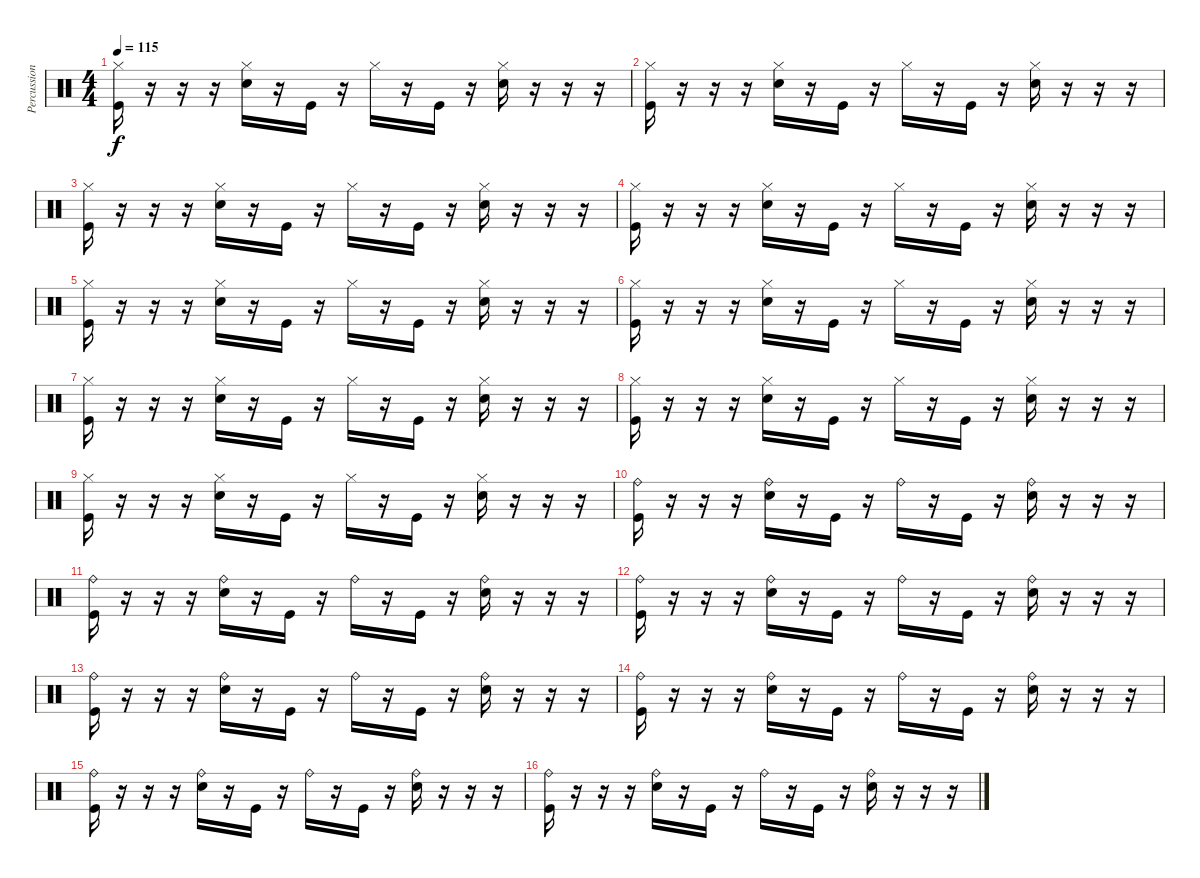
\track ("Percussion" "Percussion") {instrument percussion}
\staff {score}
\articulation defaults
\ts (4 4)
\tempo 115
\clef neutral
\ks c
("Hi-Hat (closed)" "Kick (hit)").16{dy f} r.16 r.16 r.16 ("Hi-Hat (closed)" "Snare (hit) 2").16 r.16 "Kick (hit)".16 r.16 "Hi-Hat (closed)".16 r.16 "Kick (hit)".16 r.16 ("Hi-Hat (closed)" "Snare (hit) 2").16 r.16 r.16 r.16 |
("Hi-Hat (closed)" "Kick (hit)").16 r.16 r.16 r.16 ("Hi-Hat (closed)" "Snare (hit) 2").16 r.16 "Kick (hit)".16 r.16 "Hi-Hat (closed)".16 r.16 "Kick (hit)".16 r.16 ("Hi-Hat (closed)" "Snare (hit) 2").16 r.16 r.16 r.16 |
("Hi-Hat (closed)" "Kick (hit)").16 r.16 r.16 r.16 ("Hi-Hat (closed)" "Snare (hit) 2").16 r.16 "Kick (hit)".16 r.16 "Hi-Hat (closed)".16 r.16 "Kick (hit)".16 r.16 ("Hi-Hat (closed)" "Snare (hit) 2").16 r.16 r.16 r.16 |
("Hi-Hat (closed)" "Kick (hit)").16 r.16 r.16 r.16 ("Hi-Hat (closed)" "Snare (hit) 2").16 r.16 "Kick (hit)".16 r.16 "Hi-Hat (closed)".16 r.16 "Kick (hit)".16 r.16 ("Hi-Hat (closed)" "Snare (hit) 2").16 r.16 r.16 r.16 |
("Hi-Hat (closed)" "Kick (hit)").16 r.16 r.16 r.16 ("Hi-Hat (closed)" "Snare (hit) 2").16 r.16 "Kick (hit)".16 r.16 "Hi-Hat (closed)".16 r.16 "Kick (hit)".16 r.16 ("Hi-Hat (closed)" "Snare (hit) 2").16 r.16 r.16 r.16 |
("Hi-Hat (closed)" "Kick (hit)").16 r.16 r.16 r.16 ("Hi-Hat (closed)" "Snare (hit) 2").16 r.16 "Kick (hit)".16 r.16 "Hi-Hat (closed)".16 r.16 "Kick (hit)".16 r.16 ("Hi-Hat (closed)" "Snare (hit) 2").16 r.16 r.16 r.16 |
("Hi-Hat (closed)" "Kick (hit)").16 r.16 r.16 r.16 ("Hi-Hat (closed)" "Snare (hit) 2").16 r.16 "Kick (hit)".16 r.16 "Hi-Hat (closed)".16 r.16 "Kick (hit)".16 r.16 ("Hi-Hat (closed)" "Snare (hit) 2").16 r.16 r.16 r.16 |
("Hi-Hat (closed)" "Kick (hit)").16 r.16 r.16 r.16 ("Hi-Hat (closed)" "Snare (hit) 2").16 r.16 "Kick (hit)".16 r.16 "Hi-Hat (closed)".16 r.16 "Kick (hit)".16 r.16 ("Hi-Hat (closed)" "Snare (hit) 2").16 r.16 r.16 r.16 |
("Hi-Hat (closed)" "Kick (hit)").16 r.16 r.16 r.16 ("Hi-Hat (closed)" "Snare (hit) 2").16 r.16 "Kick (hit)".16 r.16 "Hi-Hat (closed)".16 r.16 "Kick (hit)".16 r.16 ("Hi-Hat (closed)" "Snare (hit) 2").16 r.16 r.16 r.16 |
("Ride (bell)" "Kick (hit)").16 r.16 r.16 r.16 ("Ride (bell)" "Snare (hit) 2").16 r.16 "Kick (hit)".16 r.16 "Ride (bell)".16 r.16 "Kick (hit)".16 r.16 ("Ride (bell)" "Snare (hit) 2").16 r.16 r.16 r.16 |
("Ride (bell)" "Kick (hit)").16 r.16 r.16 r.16 ("Ride (bell)" "Snare (hit) 2").16 r.16 "Kick (hit)".16 r.16 "Ride (bell)".16 r.16 "Kick (hit)".16 r.16 ("Ride (bell)" "Snare (hit) 2").16 r.16 r.16 r.16 |
("Ride (bell)" "Kick (hit)").16 r.16 r.16 r.16 ("Ride (bell)" "Snare (hit) 2").16 r.16 "Kick (hit)".16 r.16 "Ride (bell)".16 r.16 "Kick (hit)".16 r.16 ("Ride (bell)" "Snare (hit) 2").16 r.16 r.16 r.16 |
("Ride (bell)" "Kick (hit)").16 r.16 r.16 r.16 ("Ride (bell)" "Snare (hit) 2").16 r.16 "Kick (hit)".16 r.16 "Ride (bell)".16 r.16 "Kick (hit)".16 r.16 ("Ride (bell)" "Snare (hit) 2").16 r.16 r.16 r.16 |
("Ride (bell)" "Kick (hit)").16 r.16 r.16 r.16 ("Ride (bell)" "Snare (hit) 2").16 r.16 "Kick (hit)".16 r.16 "Ride (bell)".16 r.16 "Kick (hit)".16 r.16 ("Ride (bell)" "Snare (hit) 2").16 r.16 r.16 r.16 |
("Ride (bell)" "Kick (hit)").16 r.16 r.16 r.16 ("Ride (bell)" "Snare (hit) 2").16 r.16 "Kick (hit)".16 r.16 "Ride (bell)".16 r.16 "Kick (hit)".16 r.16 ("Ride (bell)" "Snare (hit) 2").16 r.16 r.16 r.16 |
("Ride (bell)" "Kick (hit)").16 r.16 r.16 r.16 ("Ride (bell)" "Snare (hit) 2").16 r.16 "Kick (hit)".16 r.16 "Ride (bell)".16 r.16 "Kick (hit)".16 r.16 ("Ride (bell)" "Snare (hit) 2").16 r.16 r.16 r.16
